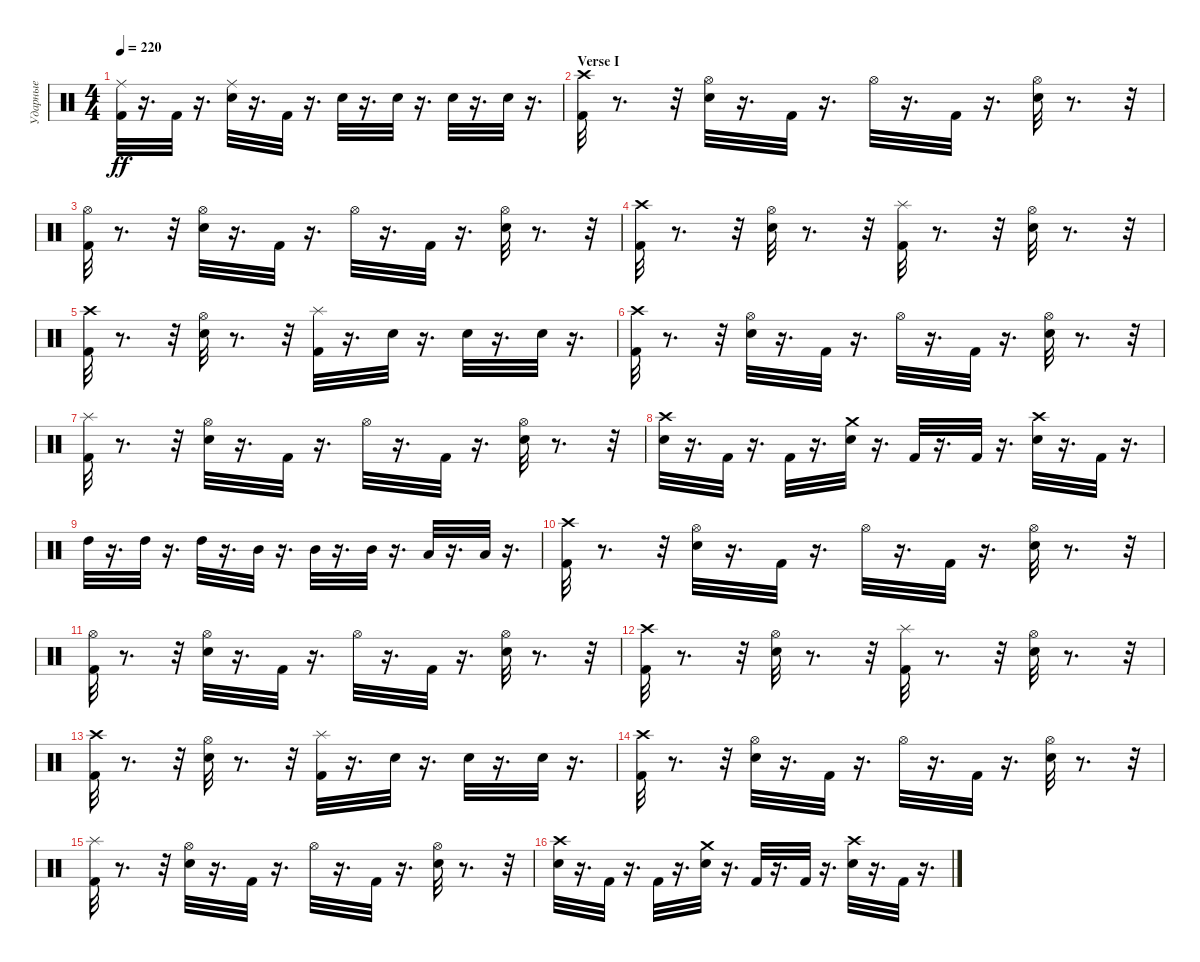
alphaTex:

\track ("Ударные" "Ударные") {instrument percussion}
\staff {score}
\articulation defaults
\ts (4 4)
\tempo 220
\clef neutral
\ks c
("Ride (middle)" "Kick (hit) 2").32{dy ff} r.16{d} "Kick (hit) 2".32 r.16{d} ("Ride (middle)" "Snare (hit) 2").32 r.16{d} "Kick (hit) 2".32 r.16{d} "Snare (hit) 2".32 r.16{d} "Snare (hit) 2".32 r.16{d} "Snare (hit) 2".32 r.16{d} "Snare (hit) 2".32 r.16{d} |
\section ("" "Verse I")
("Crash high (hit)" "Kick (hit) 2").32 r.8{d} r.32 ("Hi-Hat (open)" "Snare (hit) 2").32 r.16{d} "Kick (hit) 2".32 r.16{d} "Hi-Hat (open)".32 r.16{d} "Kick (hit) 2".32 r.16{d} ("Hi-Hat (open)" "Snare (hit) 2").32 r.8{d} r.32 |
("Kick (hit) 2" "Hi-Hat (open)").32 r.8{d} r.32 ("Snare (hit) 2" "Hi-Hat (open)").32 r.16{d} "Kick (hit) 2".32 r.16{d} "Hi-Hat (open)".32 r.16{d} "Kick (hit) 2".32 r.16{d} ("Snare (hit) 2" "Hi-Hat (open)").32 r.8{d} r.32 |
("Crash high (hit)" "Kick (hit) 2").32 r.8{d} r.32 ("Hi-Hat (open)" "Snare (hit) 2").32 r.8{d} r.32 ("Splash (hit)" "Kick (hit) 2").32 r.8{d} r.32 ("Snare (hit) 2" "Hi-Hat (open)").32 r.8{d} r.32 |
("Crash high (hit)" "Kick (hit) 2").32 r.8{d} r.32 ("Hi-Hat (open)" "Snare (hit) 2").32 r.8{d} r.32 ("Splash (hit)" "Kick (hit) 2").32 r.16{d} "Snare (hit) 2".32 r.16{d} "Snare (hit) 2".32 r.16{d} "Snare (hit) 2".32 r.16{d} |
("Crash high (hit)" "Kick (hit) 2").32 r.8{d} r.32 ("Hi-Hat (open)" "Snare (hit) 2").32 r.16{d} "Kick (hit) 2".32 r.16{d} "Hi-Hat (open)".32 r.16{d} "Kick (hit) 2".32 r.16{d} ("Snare (hit) 2" "Hi-Hat (open)").32 r.8{d} r.32 |
("Kick (hit) 2" "Splash (hit)").32 r.8{d} r.32 ("Snare (hit) 2" "Hi-Hat (open)").32 r.16{d} "Kick (hit) 2".32 r.16{d} "Hi-Hat (open)".32 r.16{d} "Kick (hit) 2".32 r.16{d} ("Snare (hit) 2" "Hi-Hat (open)").32 r.8{d} r.32 |
("Crash high (hit)" "Snare (hit) 2").32 r.16{d} "Kick (hit) 2".32 r.16{d} "Kick (hit) 2".32 r.16{d} ("Crash medium (hit)" "Snare (hit) 2").32 r.16{d} "Kick (hit) 2".32 r.16{d} "Kick (hit) 2".32 r.16{d} ("Crash high (hit)" "Snare (hit) 2").32 r.16{d} "Kick (hit) 2".32 r.16{d} |
"High Tom (hit)".32 r.16{d} "High Tom (hit)".32 r.16{d} "High Tom (hit)".32 r.16{d} "Mid Tom (hit)".32 r.16{d} "Mid Tom (hit)".32 r.16{d} "Mid Tom (hit)".32 r.16{d} "Low Tom (hit)".32 r.16{d} "Low Tom (hit)".32 r.16{d} |
("Crash high (hit)" "Kick (hit) 2").32 r.8{d} r.32 ("Hi-Hat (open)" "Snare (hit) 2").32 r.16{d} "Kick (hit) 2".32 r.16{d} "Hi-Hat (open)".32 r.16{d} "Kick (hit) 2".32 r.16{d} ("Hi-Hat (open)" "Snare (hit) 2").32 r.8{d} r.32 |
("Kick (hit) 2" "Hi-Hat (open)").32 r.8{d} r.32 ("Snare (hit) 2" "Hi-Hat (open)").32 r.16{d} "Kick (hit) 2".32 r.16{d} "Hi-Hat (open)".32 r.16{d} "Kick (hit) 2".32 r.16{d} ("Snare (hit) 2" "Hi-Hat (open)").32 r.8{d} r.32 |
("Crash high (hit)" "Kick (hit) 2").32 r.8{d} r.32 ("Hi-Hat (open)" "Snare (hit) 2").32 r.8{d} r.32 ("Splash (hit)" "Kick (hit) 2").32 r.8{d} r.32 ("Snare (hit) 2" "Hi-Hat (open)").32 r.8{d} r.32 |
("Crash high (hit)" "Kick (hit) 2").32 r.8{d} r.32 ("Hi-Hat (open)" "Snare (hit) 2").32 r.8{d} r.32 ("Splash (hit)" "Kick (hit) 2").32 r.16{d} "Snare (hit) 2".32 r.16{d} "Snare (hit) 2".32 r.16{d} "Snare (hit) 2".32 r.16{d} |
("Crash high (hit)" "Kick (hit) 2").32 r.8{d} r.32 ("Hi-Hat (open)" "Snare (hit) 2").32 r.16{d} "Kick (hit) 2".32 r.16{d} "Hi-Hat (open)".32 r.16{d} "Kick (hit) 2".32 r.16{d} ("Snare (hit) 2" "Hi-Hat (open)").32 r.8{d} r.32 |
("Kick (hit) 2" "Splash (hit)").32 r.8{d} r.32 ("Snare (hit) 2" "Hi-Hat (open)").32 r.16{d} "Kick (hit) 2".32 r.16{d} "Hi-Hat (open)".32 r.16{d} "Kick (hit) 2".32 r.16{d} ("Snare (hit) 2" "Hi-Hat (open)").32 r.8{d} r.32 |
("Crash high (hit)" "Snare (hit) 2").32 r.16{d} "Kick (hit) 2".32 r.16{d} "Kick (hit) 2".32 r.16{d} ("Crash medium (hit)" "Snare (hit) 2").32 r.16{d} "Kick (hit) 2".32 r.16{d} "Kick (hit) 2".32 r.16{d} ("Crash high (hit)" "Snare (hit) 2").32 r.16{d} "Kick (hit) 2".32 r.16{d}
